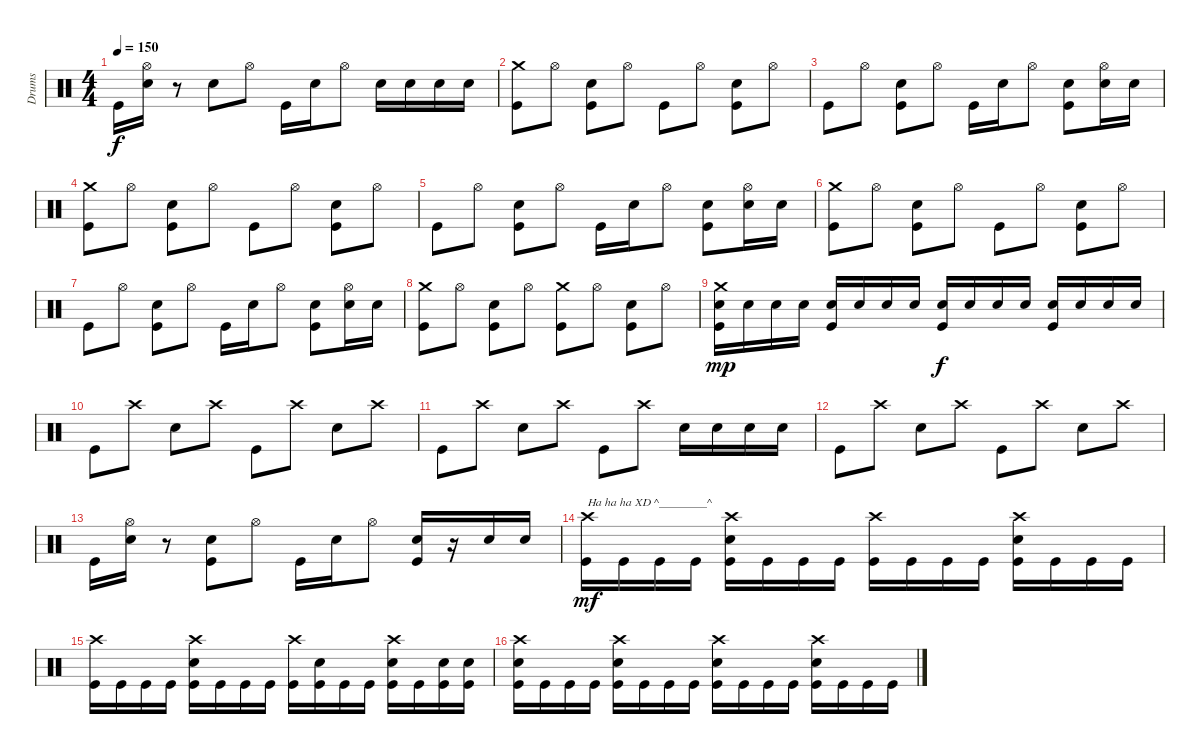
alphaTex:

\track ("Drums" "Drums") {instrument percussion}
\staff {score}
\articulation defaults
\ts (4 4)
\tempo 150
\clef neutral
\ks c "Kick (hit)".16{dy f}
("Electric Snare (hit)" "Hi-Hat (open)").16 r.8 "Electric Snare (hit)".8 "Hi-Hat (open)".8 "Kick (hit)".16 "Electric Snare (hit)".16 "Hi-Hat (open)".8 "Electric Snare (hit)".16 "Electric Snare (hit)".16 "Electric Snare (hit)".16 "Electric Snare (hit)".16 |
("Crash medium (hit)" "Kick (hit)").8 "Hi-Hat (open)".8 ("Electric Snare (hit)" "Kick (hit)").8 "Hi-Hat (open)".8 "Kick (hit)".8 "Hi-Hat (open)".8 ("Electric Snare (hit)" "Kick (hit)").8 "Hi-Hat (open)".8 |
"Kick (hit)".8 "Hi-Hat (open)".8 ("Electric Snare (hit)" "Kick (hit)").8 "Hi-Hat (open)".8 "Kick (hit)".16 "Electric Snare (hit)".16 "Hi-Hat (open)".8 ("Electric Snare (hit)" "Kick (hit)").8 ("Electric Snare (hit)" "Hi-Hat (open)").16 "Electric Snare (hit)".16 |
("Crash medium (hit)" "Kick (hit)").8 "Hi-Hat (open)".8 ("Electric Snare (hit)" "Kick (hit)").8 "Hi-Hat (open)".8 "Kick (hit)".8 "Hi-Hat (open)".8 ("Electric Snare (hit)" "Kick (hit)").8 "Hi-Hat (open)".8 |
"Kick (hit)".8 "Hi-Hat (open)".8 ("Electric Snare (hit)" "Kick (hit)").8 "Hi-Hat (open)".8 "Kick (hit)".16 "Electric Snare (hit)".16 "Hi-Hat (open)".8 ("Electric Snare (hit)" "Kick (hit)").8 ("Electric Snare (hit)" "Hi-Hat (open)").16 "Electric Snare (hit)".16 |
("Crash medium (hit)" "Kick (hit)").8 "Hi-Hat (open)".8 ("Electric Snare (hit)" "Kick (hit)").8 "Hi-Hat (open)".8 "Kick (hit)".8 "Hi-Hat (open)".8 ("Electric Snare (hit)" "Kick (hit)").8 "Hi-Hat (open)".8 |
"Kick (hit)".8 "Hi-Hat (open)".8 ("Electric Snare (hit)" "Kick (hit)").8 "Hi-Hat (open)".8 "Kick (hit)".16 "Electric Snare (hit)".16 "Hi-Hat (open)".8 ("Electric Snare (hit)" "Kick (hit)").8 ("Electric Snare (hit)" "Hi-Hat (open)").16 "Electric Snare (hit)".16 |
("Crash medium (hit)" "Kick (hit)").8 "Hi-Hat (open)".8 ("Electric Snare (hit)" "Kick (hit)").8 "Hi-Hat (open)".8 ("Crash medium (hit)" "Kick (hit)").8 "Hi-Hat (open)".8 ("Electric Snare (hit)" "Kick (hit)").8 "Hi-Hat (open)".8 |
("Crash medium (hit)" "Electric Snare (hit)" "Kick (hit)").16{dy mp} "Electric Snare (hit)".16 "Electric Snare (hit)".16 "Electric Snare (hit)".16 ("Electric Snare (hit)" "Kick (hit)").16 "Electric Snare (hit)".16 "Electric Snare (hit)".16 "Electric Snare (hit)".16 ("Electric Snare (hit)" "Kick (hit)").16{dy f} "Electric Snare (hit)".16 "Electric Snare (hit)".16 "Electric Snare (hit)".16 ("Electric Snare (hit)" "Kick (hit)").16 "Electric Snare (hit)".16 "Electric Snare (hit)".16 "Electric Snare (hit)".16 |
"Kick (hit)".8 "Crash high (hit)".8 "Electric Snare (hit)".8 "Crash high (hit)".8 "Kick (hit)".8 "Crash high (hit)".8 "Electric Snare (hit)".8 "Crash high (hit)".8 |
"Kick (hit)".8 "Crash high (hit)".8 "Electric Snare (hit)".8 "Crash high (hit)".8 "Kick (hit)".8 "Crash high (hit)".8 "Electric Snare (hit)".16 "Electric Snare (hit)".16 "Electric Snare (hit)".16 "Electric Snare (hit)".16 |
"Kick (hit)".8 "Crash high (hit)".8 "Electric Snare (hit)".8 "Crash high (hit)".8 "Kick (hit)".8 "Crash high (hit)".8 "Electric Snare (hit)".8 "Crash high (hit)".8 |
"Kick (hit)".16 ("Electric Snare (hit)" "Hi-Hat (open)").16 r.8 ("Electric Snare (hit)" "Kick (hit)").8 "Hi-Hat (open)".8 "Kick (hit)".16 "Electric Snare (hit)".16 "Hi-Hat (open)".8 ("Electric Snare (hit)" "Kick (hit)").16 r.16 "Electric Snare (hit)".16 "Electric Snare (hit)".16 |
("Crash high (hit)" "Kick (hit)").16{txt "Ha ha ha XD ^________^" dy mf} "Kick (hit)".16 "Kick (hit)".16 "Kick (hit)".16 ("Crash high (hit)" "Electric Snare (hit)" "Kick (hit)").16 "Kick (hit)".16 "Kick (hit)".16 "Kick (hit)".16 ("Crash high (hit)" "Kick (hit)").16 "Kick (hit)".16 "Kick (hit)".16 "Kick (hit)".16 ("Crash high (hit)" "Electric Snare (hit)" "Kick (hit)").16 "Kick (hit)".16 "Kick (hit)".16 "Kick (hit)".16 |
("Crash high (hit)" "Kick (hit)").16 "Kick (hit)".16 "Kick (hit)".16 "Kick (hit)".16 ("Crash high (hit)" "Electric Snare (hit)" "Kick (hit)").16 "Kick (hit)".16 "Kick (hit)".16 "Kick (hit)".16 ("Crash high (hit)" "Kick (hit)").16 ("Electric Snare (hit)" "Kick (hit)").16 "Kick (hit)".16 "Kick (hit)".16 ("Crash high (hit)" "Electric Snare (hit)" "Kick (hit)").16 "Kick (hit)".16 ("Electric Snare (hit)" "Kick (hit)").16 ("Electric Snare (hit)" "Kick (hit)").16 |
("Crash high (hit)" "Electric Snare (hit)" "Kick (hit)").16 "Kick (hit)".16 "Kick (hit)".16 "Kick (hit)".16 ("Crash high (hit)" "Electric Snare (hit)" "Kick (hit)").16 "Kick (hit)".16 "Kick (hit)".16 "Kick (hit)".16 ("Crash high (hit)" "Electric Snare (hit)" "Kick (hit)").16 "Kick (hit)".16 "Kick (hit)".16 "Kick (hit)".16 ("Crash high (hit)" "Electric Snare (hit)" "Kick (hit)").16 "Kick (hit)".16 "Kick (hit)".16 "Kick (hit)".16
